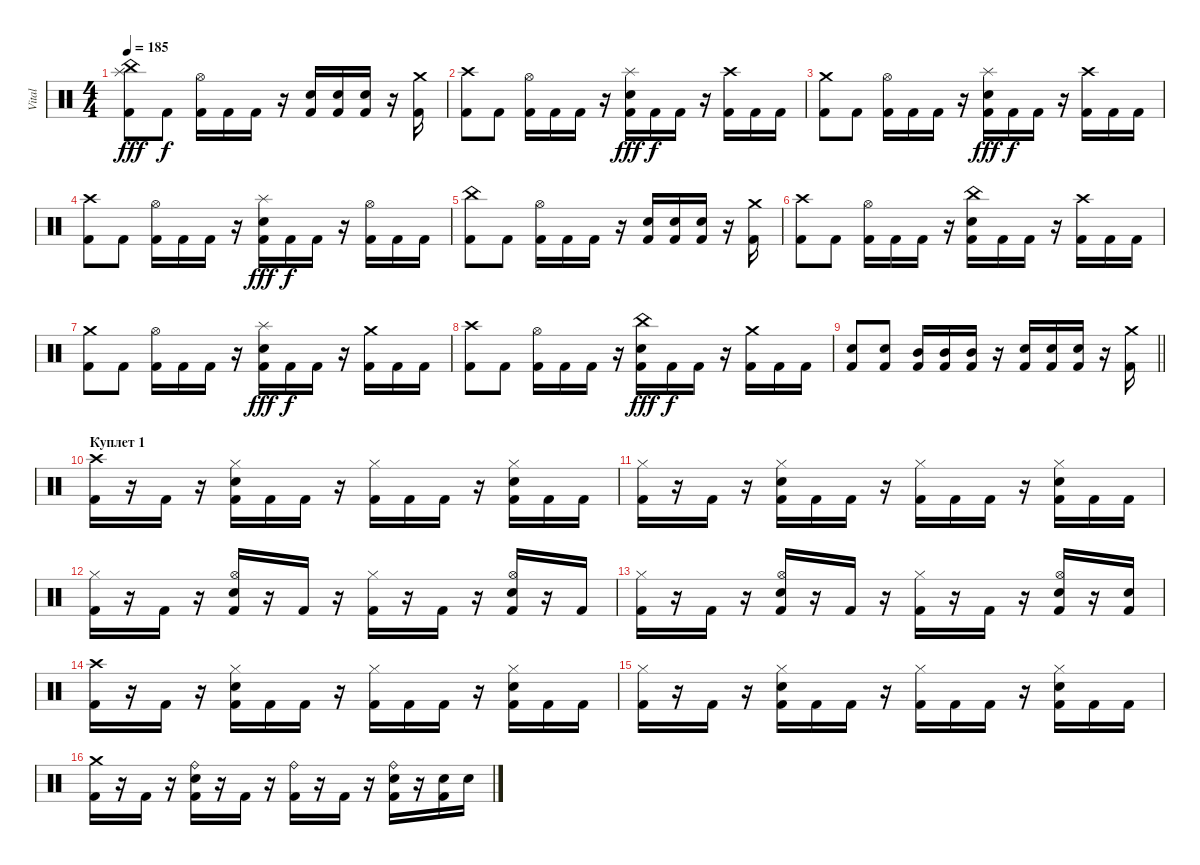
\track ("Vital" "Vital") {instrument percussion}
\staff {score}
\articulation defaults
\ts (4 4)
\tempo 185
\clef neutral
\ks c
("China (hit)" "Splash (hit)" "Kick (hit) 2").8{dy fff} "Kick (hit) 2".8{dy f} ("Hi-Hat (open)" "Kick (hit) 2").16 "Kick (hit) 2".16 "Kick (hit) 2".16 r.16 ("Snare (hit) 2" "Kick (hit) 2").16 ("Snare (hit) 2" "Kick (hit) 2").16 ("Snare (hit) 2" "Kick (hit) 2").16 r.16 ("Crash medium (hit)" "Kick (hit) 2").16 |
("Crash high (hit)" "Kick (hit) 2").8 "Kick (hit) 2".8 ("Hi-Hat (open)" "Kick (hit) 2").16 "Kick (hit) 2".16 "Kick (hit) 2".16 r.16 ("Splash (hit)" "Snare (hit) 2" "Kick (hit) 2").16{dy fff} "Kick (hit) 2".16{dy f} "Kick (hit) 2".16 r.16 ("Crash high (hit)" "Kick (hit) 2").16 "Kick (hit) 2".16 "Kick (hit) 2".16 |
("Crash medium (hit)" "Kick (hit) 2").8 "Kick (hit) 2".8 ("Hi-Hat (open)" "Kick (hit) 2").16 "Kick (hit) 2".16 "Kick (hit) 2".16 r.16 ("Splash (hit)" "Snare (hit) 2" "Kick (hit) 2").16{dy fff} "Kick (hit) 2".16{dy f} "Kick (hit) 2".16 r.16 ("Crash high (hit)" "Kick (hit) 2").16 "Kick (hit) 2".16 "Kick (hit) 2".16 |
("Crash high (hit)" "Kick (hit) 2").8 "Kick (hit) 2".8 ("Hi-Hat (open)" "Kick (hit) 2").16 "Kick (hit) 2".16 "Kick (hit) 2".16 r.16 ("Splash (hit)" "Snare (hit) 2" "Kick (hit) 2").16{dy fff} "Kick (hit) 2".16{dy f} "Kick (hit) 2".16 r.16 ("Hi-Hat (open)" "Kick (hit) 2").16 "Kick (hit) 2".16 "Kick (hit) 2".16 |
("China (hit)" "Kick (hit) 2").8 "Kick (hit) 2".8 ("Hi-Hat (open)" "Kick (hit) 2").16 "Kick (hit) 2".16 "Kick (hit) 2".16 r.16 ("Snare (hit) 2" "Kick (hit) 2").16 ("Snare (hit) 2" "Kick (hit) 2").16 ("Snare (hit) 2" "Kick (hit) 2").16 r.16 ("Crash medium (hit)" "Kick (hit) 2").16 |
("Crash high (hit)" "Kick (hit) 2").8 "Kick (hit) 2".8 ("Hi-Hat (open)" "Kick (hit) 2").16 "Kick (hit) 2".16 "Kick (hit) 2".16 r.16 ("China (hit)" "Snare (hit) 2" "Kick (hit) 2").16 "Kick (hit) 2".16 "Kick (hit) 2".16 r.16 ("Crash high (hit)" "Kick (hit) 2").16 "Kick (hit) 2".16 "Kick (hit) 2".16 |
("Crash medium (hit)" "Kick (hit) 2").8 "Kick (hit) 2".8 ("Hi-Hat (open)" "Kick (hit) 2").16 "Kick (hit) 2".16 "Kick (hit) 2".16 r.16 ("Splash (hit)" "Snare (hit) 2" "Kick (hit) 2").16{dy fff} "Kick (hit) 2".16{dy f} "Kick (hit) 2".16 r.16 ("Crash medium (hit)" "Kick (hit) 2").16 "Kick (hit) 2".16 "Kick (hit) 2".16 |
("Crash high (hit)" "Kick (hit) 2").8 "Kick (hit) 2".8 ("Hi-Hat (open)" "Kick (hit) 2").16 "Kick (hit) 2".16 "Kick (hit) 2".16 r.16 ("China (hit)" "Snare (hit) 2" "Kick (hit) 2").16{dy fff} "Kick (hit) 2".16{dy f} "Kick (hit) 2".16 r.16 ("Crash medium (hit)" "Kick (hit) 2").16 "Kick (hit) 2".16 "Kick (hit) 2".16 |
\barLineRight lightlight
("Snare (hit) 2" "Kick (hit) 2").8 ("Snare (hit) 2" "Kick (hit) 2").8 ("Mid Tom (hit)" "Kick (hit) 2").16 ("Mid Tom (hit)" "Kick (hit) 2").16 ("Mid Tom (hit)" "Kick (hit) 2").16 r.16 ("Snare (hit) 2" "Kick (hit) 2").16 ("Snare (hit) 2" "Kick (hit) 2").16 ("Snare (hit) 2" "Kick (hit) 2").16 r.16 ("Crash medium (hit)" "Kick (hit) 2").16 |
\section ("" "Куплет 1")
("Crash high (hit)" "Kick (hit) 2").16 r.16 "Kick (hit) 2".16 r.16 ("Hi-Hat (closed)" "Snare (hit) 2" "Kick (hit) 2").16 "Kick (hit) 2".16 "Kick (hit) 2".16 r.16 ("Hi-Hat (closed)" "Kick (hit) 2").16 "Kick (hit) 2".16 "Kick (hit) 2".16 r.16 ("Hi-Hat (closed)" "Snare (hit) 2" "Kick (hit) 2").16 "Kick (hit) 2".16 "Kick (hit) 2".16 |
("Hi-Hat (closed)" "Kick (hit) 2").16 r.16 "Kick (hit) 2".16 r.16 ("Hi-Hat (closed)" "Snare (hit) 2" "Kick (hit) 2").16 "Kick (hit) 2".16 "Kick (hit) 2".16 r.16 ("Hi-Hat (closed)" "Kick (hit) 2").16 "Kick (hit) 2".16 "Kick (hit) 2".16 r.16 ("Hi-Hat (closed)" "Snare (hit) 2" "Kick (hit) 2").16 "Kick (hit) 2".16 "Kick (hit) 2".16 |
("Hi-Hat (closed)" "Kick (hit) 2").16 r.16 "Kick (hit) 2".16 r.16 ("Hi-Hat (open)" "Snare (hit) 2" "Kick (hit) 2").16 r.16 "Kick (hit) 2".16 r.16 ("Hi-Hat (closed)" "Kick (hit) 2").16 r.16 "Kick (hit) 2".16 r.16 ("Hi-Hat (open)" "Snare (hit) 2" "Kick (hit) 2").16 r.16 "Kick (hit) 2".16 |
("Hi-Hat (closed)" "Kick (hit) 2").16 r.16 "Kick (hit) 2".16 r.16 ("Hi-Hat (open)" "Snare (hit) 2" "Kick (hit) 2").16 r.16 "Kick (hit) 2".16 r.16 ("Hi-Hat (closed)" "Kick (hit) 2").16 r.16 "Kick (hit) 2".16 r.16 ("Hi-Hat (open)" "Snare (hit) 2" "Kick (hit) 2").16 r.16 ("Snare (hit) 2" "Kick (hit) 2").16 |
("Crash high (hit)" "Kick (hit) 2").16 r.16 "Kick (hit) 2".16 r.16 ("Hi-Hat (closed)" "Snare (hit) 2" "Kick (hit) 2").16 "Kick (hit) 2".16 "Kick (hit) 2".16 r.16 ("Hi-Hat (closed)" "Kick (hit) 2").16 "Kick (hit) 2".16 "Kick (hit) 2".16 r.16 ("Hi-Hat (closed)" "Snare (hit) 2" "Kick (hit) 2").16 "Kick (hit) 2".16 "Kick (hit) 2".16 |
("Hi-Hat (closed)" "Kick (hit) 2").16 r.16 "Kick (hit) 2".16 r.16 ("Hi-Hat (closed)" "Snare (hit) 2" "Kick (hit) 2").16 "Kick (hit) 2".16 "Kick (hit) 2".16 r.16 ("Hi-Hat (closed)" "Kick (hit) 2").16 "Kick (hit) 2".16 "Kick (hit) 2".16 r.16 ("Hi-Hat (closed)" "Snare (hit) 2" "Kick (hit) 2").16 "Kick (hit) 2".16 "Kick (hit) 2".16 |
("Crash medium (hit)" "Kick (hit) 2").16 r.16 "Kick (hit) 2".16 r.16 ("Ride (bell)" "Snare (hit) 2" "Kick (hit) 2").16 r.16 "Kick (hit) 2".16 r.16 ("Ride (bell)" "Kick (hit) 2").16 r.16 "Kick (hit) 2".16 r.16 ("Ride (bell)" "Snare (hit) 2" "Kick (hit) 2").16 r.16 ("Snare (hit) 2" "Kick (hit) 2").16 "Snare (hit) 2".16
